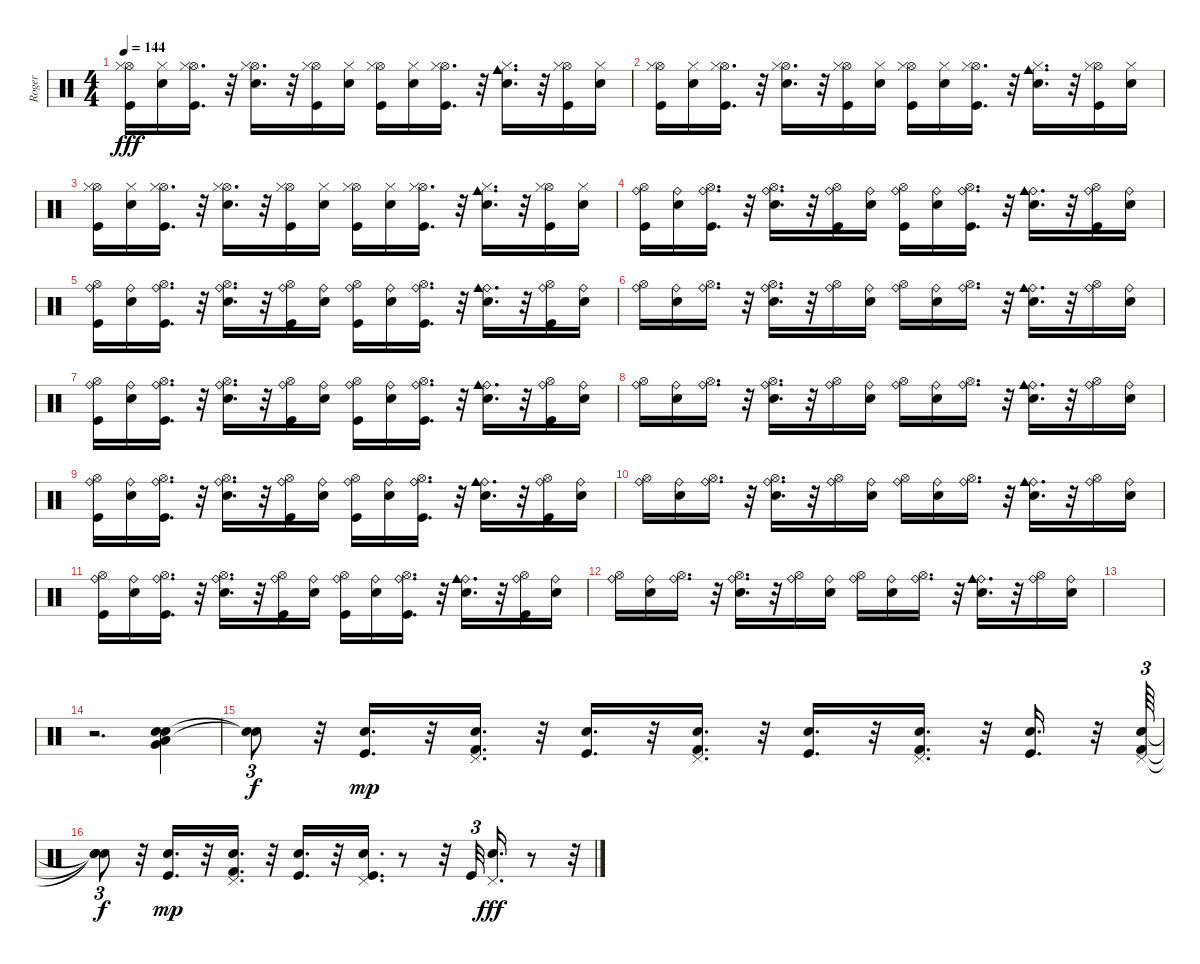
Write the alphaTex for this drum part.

\track ("Roger" "Roger") {instrument percussion}
\staff {score}
\articulation defaults
\ts (4 4)
\tempo 144
\clef neutral
\ks c
("Hi-Hat (open)" "Hi-Hat (closed)" "Kick (hit)").16{dy fff} ("Snare (hit) 2" "Hi-Hat (closed)").16 ("Hi-Hat (open)" "Hi-Hat (closed)" "Kick (hit)").16{d} r.32 ("Snare (hit) 2" "Hi-Hat (open)" "Hi-Hat (closed)").16{d} r.32 ("Hi-Hat (open)" "Hi-Hat (closed)" "Kick (hit)").16 ("Snare (hit) 2" "Hi-Hat (closed)").16 ("Hi-Hat (open)" "Hi-Hat (closed)" "Kick (hit)").16 ("Snare (hit) 2" "Hi-Hat (closed)").16 ("Hi-Hat (open)" "Hi-Hat (closed)" "Kick (hit)").16{d} r.32 ("Snare (hit) 2" "Hi-Hat (closed)" "Cowbell medium (hit)").16{d} r.32 ("Hi-Hat (open)" "Hi-Hat (closed)" "Kick (hit)").16 ("Snare (hit) 2" "Hi-Hat (closed)").16 |
("Hi-Hat (open)" "Hi-Hat (closed)" "Kick (hit)").16 ("Snare (hit) 2" "Hi-Hat (closed)").16 ("Hi-Hat (open)" "Hi-Hat (closed)" "Kick (hit)").16{d} r.32 ("Snare (hit) 2" "Hi-Hat (open)" "Hi-Hat (closed)").16{d} r.32 ("Hi-Hat (open)" "Hi-Hat (closed)" "Kick (hit)").16 ("Snare (hit) 2" "Hi-Hat (closed)").16 ("Hi-Hat (open)" "Hi-Hat (closed)" "Kick (hit)").16 ("Snare (hit) 2" "Hi-Hat (closed)").16 ("Hi-Hat (open)" "Hi-Hat (closed)" "Kick (hit)").16{d} r.32 ("Snare (hit) 2" "Hi-Hat (closed)" "Cowbell medium (hit)").16{d} r.32 ("Hi-Hat (open)" "Hi-Hat (closed)" "Kick (hit)").16 ("Snare (hit) 2" "Hi-Hat (closed)").16 |
("Hi-Hat (open)" "Hi-Hat (closed)" "Kick (hit)").16 ("Snare (hit) 2" "Hi-Hat (closed)").16 ("Hi-Hat (open)" "Hi-Hat (closed)" "Kick (hit)").16{d} r.32 ("Snare (hit) 2" "Hi-Hat (open)" "Hi-Hat (closed)").16{d} r.32 ("Hi-Hat (open)" "Hi-Hat (closed)" "Kick (hit)").16 ("Snare (hit) 2" "Hi-Hat (closed)").16 ("Hi-Hat (open)" "Hi-Hat (closed)" "Kick (hit)").16 ("Snare (hit) 2" "Hi-Hat (closed)").16 ("Hi-Hat (open)" "Hi-Hat (closed)" "Kick (hit)").16{d} r.32 ("Snare (hit) 2" "Hi-Hat (closed)" "Cowbell medium (hit)").16{d} r.32 ("Hi-Hat (open)" "Hi-Hat (closed)" "Kick (hit)").16 ("Snare (hit) 2" "Hi-Hat (closed)").16 |
("Hi-Hat (open)" "Ride (bell)" "Kick (hit)").16 ("Snare (hit) 2" "Ride (bell)").16 ("Hi-Hat (open)" "Ride (bell)" "Kick (hit)").16{d} r.32 ("Snare (hit) 2" "Hi-Hat (open)" "Ride (bell)").16{d} r.32 ("Hi-Hat (open)" "Ride (bell)" "Kick (hit)").16 ("Snare (hit) 2" "Ride (bell)").16 ("Hi-Hat (open)" "Ride (bell)" "Kick (hit)").16 ("Snare (hit) 2" "Ride (bell)").16 ("Hi-Hat (open)" "Ride (bell)" "Kick (hit)").16{d} r.32 ("Snare (hit) 2" "Ride (bell)" "Cowbell medium (hit)").16{d} r.32 ("Hi-Hat (open)" "Ride (bell)" "Kick (hit)").16 ("Snare (hit) 2" "Ride (bell)").16 |
("Hi-Hat (open)" "Ride (bell)" "Kick (hit)").16 ("Snare (hit) 2" "Ride (bell)").16 ("Hi-Hat (open)" "Ride (bell)" "Kick (hit)").16{d} r.32 ("Snare (hit) 2" "Hi-Hat (open)" "Ride (bell)").16{d} r.32 ("Hi-Hat (open)" "Ride (bell)" "Kick (hit)").16 ("Snare (hit) 2" "Ride (bell)").16 ("Hi-Hat (open)" "Ride (bell)" "Kick (hit)").16 ("Snare (hit) 2" "Ride (bell)").16 ("Hi-Hat (open)" "Ride (bell)" "Kick (hit)").16{d} r.32 ("Snare (hit) 2" "Ride (bell)" "Cowbell medium (hit)").16{d} r.32 ("Hi-Hat (open)" "Ride (bell)" "Kick (hit)").16 ("Snare (hit) 2" "Ride (bell)").16 |
("Hi-Hat (open)" "Ride (bell)").16 ("Snare (hit) 2" "Ride (bell)").16 ("Hi-Hat (open)" "Ride (bell)").16{d} r.32 ("Snare (hit) 2" "Hi-Hat (open)" "Ride (bell)").16{d} r.32 ("Hi-Hat (open)" "Ride (bell)").16 ("Snare (hit) 2" "Ride (bell)").16 ("Hi-Hat (open)" "Ride (bell)").16 ("Snare (hit) 2" "Ride (bell)").16 ("Hi-Hat (open)" "Ride (bell)").16{d} r.32 ("Snare (hit) 2" "Ride (bell)" "Cowbell medium (hit)").16{d} r.32 ("Hi-Hat (open)" "Ride (bell)").16 ("Snare (hit) 2" "Ride (bell)").16 |
("Hi-Hat (open)" "Ride (bell)" "Kick (hit)").16 ("Snare (hit) 2" "Ride (bell)").16 ("Hi-Hat (open)" "Ride (bell)" "Kick (hit)").16{d} r.32 ("Snare (hit) 2" "Hi-Hat (open)" "Ride (bell)").16{d} r.32 ("Hi-Hat (open)" "Ride (bell)" "Kick (hit)").16 ("Snare (hit) 2" "Ride (bell)").16 ("Hi-Hat (open)" "Ride (bell)" "Kick (hit)").16 ("Snare (hit) 2" "Ride (bell)").16 ("Hi-Hat (open)" "Ride (bell)" "Kick (hit)").16{d} r.32 ("Snare (hit) 2" "Ride (bell)" "Cowbell medium (hit)").16{d} r.32 ("Hi-Hat (open)" "Ride (bell)" "Kick (hit)").16 ("Snare (hit) 2" "Ride (bell)").16 |
("Hi-Hat (open)" "Ride (bell)").16 ("Snare (hit) 2" "Ride (bell)").16 ("Hi-Hat (open)" "Ride (bell)").16{d} r.32 ("Snare (hit) 2" "Hi-Hat (open)" "Ride (bell)").16{d} r.32 ("Hi-Hat (open)" "Ride (bell)").16 ("Snare (hit) 2" "Ride (bell)").16 ("Hi-Hat (open)" "Ride (bell)").16 ("Snare (hit) 2" "Ride (bell)").16 ("Hi-Hat (open)" "Ride (bell)").16{d} r.32 ("Snare (hit) 2" "Ride (bell)" "Cowbell medium (hit)").16{d} r.32 ("Hi-Hat (open)" "Ride (bell)").16 ("Snare (hit) 2" "Ride (bell)").16 |
("Hi-Hat (open)" "Ride (bell)" "Kick (hit)").16 ("Snare (hit) 2" "Ride (bell)").16 ("Hi-Hat (open)" "Ride (bell)" "Kick (hit)").16{d} r.32 ("Snare (hit) 2" "Hi-Hat (open)" "Ride (bell)").16{d} r.32 ("Hi-Hat (open)" "Ride (bell)" "Kick (hit)").16 ("Snare (hit) 2" "Ride (bell)").16 ("Hi-Hat (open)" "Ride (bell)" "Kick (hit)").16 ("Snare (hit) 2" "Ride (bell)").16 ("Hi-Hat (open)" "Ride (bell)" "Kick (hit)").16{d} r.32 ("Snare (hit) 2" "Ride (bell)" "Cowbell medium (hit)").16{d} r.32 ("Hi-Hat (open)" "Ride (bell)" "Kick (hit)").16 ("Snare (hit) 2" "Ride (bell)").16 |
("Hi-Hat (open)" "Ride (bell)").16 ("Snare (hit) 2" "Ride (bell)").16 ("Hi-Hat (open)" "Ride (bell)").16{d} r.32 ("Snare (hit) 2" "Hi-Hat (open)" "Ride (bell)").16{d} r.32 ("Hi-Hat (open)" "Ride (bell)").16 ("Snare (hit) 2" "Ride (bell)").16 ("Hi-Hat (open)" "Ride (bell)").16 ("Snare (hit) 2" "Ride (bell)").16 ("Hi-Hat (open)" "Ride (bell)").16{d} r.32 ("Snare (hit) 2" "Ride (bell)" "Cowbell medium (hit)").16{d} r.32 ("Hi-Hat (open)" "Ride (bell)").16 ("Snare (hit) 2" "Ride (bell)").16 |
("Hi-Hat (open)" "Ride (bell)" "Kick (hit)").16 ("Snare (hit) 2" "Ride (bell)").16 ("Hi-Hat (open)" "Ride (bell)" "Kick (hit)").16{d} r.32 ("Snare (hit) 2" "Hi-Hat (open)" "Ride (bell)").16{d} r.32 ("Hi-Hat (open)" "Ride (bell)" "Kick (hit)").16 ("Snare (hit) 2" "Ride (bell)").16 ("Hi-Hat (open)" "Ride (bell)" "Kick (hit)").16 ("Snare (hit) 2" "Ride (bell)").16 ("Hi-Hat (open)" "Ride (bell)" "Kick (hit)").16{d} r.32 ("Snare (hit) 2" "Ride (bell)" "Cowbell medium (hit)").16{d} r.32 ("Hi-Hat (open)" "Ride (bell)" "Kick (hit)").16 ("Snare (hit) 2" "Ride (bell)").16 |
("Hi-Hat (open)" "Ride (bell)").16 ("Snare (hit) 2" "Ride (bell)").16 ("Hi-Hat (open)" "Ride (bell)").16{d} r.32 ("Snare (hit) 2" "Hi-Hat (open)" "Ride (bell)").16{d} r.32 ("Hi-Hat (open)" "Ride (bell)").16 ("Snare (hit) 2" "Ride (bell)").16 ("Hi-Hat (open)" "Ride (bell)").16 ("Snare (hit) 2" "Ride (bell)").16 ("Hi-Hat (open)" "Ride (bell)").16{d} r.32 ("Snare (hit) 2" "Ride (bell)" "Cowbell medium (hit)").16{d} r.32 ("Hi-Hat (open)" "Ride (bell)").16 ("Snare (hit) 2" "Ride (bell)").16 |
|
r.2{d} ("Low Floor Tom (hit)" "Snare (hit) 2" "Very Low Tom (hit)" "Electric Snare (hit)").4{bd 480} |
("Snare (hit)"{t} "Snare (hit)"{t}).8{tu (3 2) dy f} r.32 ("Electric Snare (hit)" "Kick (hit)").16{d dy mp} r.32 ("Snare (hit) 2" "Pedal Hi-Hat (hit)" "Kick (hit) 2").16{d} r.32 ("Electric Snare (hit)" "Kick (hit)").16{d} r.32 ("Snare (hit) 2" "Pedal Hi-Hat (hit)" "Kick (hit) 2").16{d} r.32 ("Electric Snare (hit)" "Kick (hit)").16{d} r.32 ("Snare (hit) 2" "Pedal Hi-Hat (hit)" "Kick (hit) 2").16{d} r.32 ("Electric Snare (hit)" "Kick (hit)").16{d} r.32 ("Snare (hit) 2" "Pedal Hi-Hat (hit)" "Kick (hit) 2").64{tu (3 2)} |
("Snare (hit)"{t} "Snare (hit)"{t} "Snare (hit)"{t}).8{tu (3 2) dy f} r.32 ("Electric Snare (hit)" "Kick (hit)").16{d dy mp} r.32 ("Snare (hit) 2" "Pedal Hi-Hat (hit)" "Kick (hit) 2").16{d} r.32 ("Electric Snare (hit)" "Kick (hit)").16{d} r.32 ("Snare (hit) 2" "Pedal Hi-Hat (hit)" "Kick (hit)").16{d} r.8 r.32 "Kick (hit)".32{tu (3 2)} ("Snare (hit) 2" "Pedal Hi-Hat (hit)").16{d dy fff} r.8 r.32{tu (3 2)}
